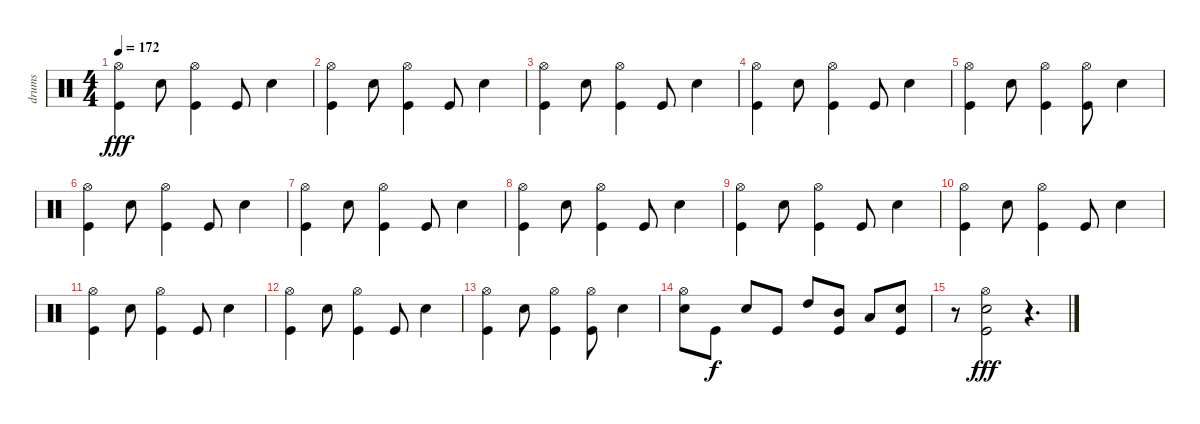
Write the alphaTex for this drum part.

\track ("drums" "drums") {instrument percussion}
\staff {score}
\articulation defaults
\ts (4 4)
\tempo 172
\clef neutral
\ks c
("Hi-Hat (open)" "Kick (hit)").4{dy fff} "Electric Snare (hit)".8 ("Hi-Hat (open)" "Kick (hit)").4 "Kick (hit)".8 "Electric Snare (hit)".4 |
("Hi-Hat (open)" "Kick (hit)").4 "Electric Snare (hit)".8 ("Hi-Hat (open)" "Kick (hit)").4 "Kick (hit)".8 "Electric Snare (hit)".4 |
("Hi-Hat (open)" "Kick (hit)").4 "Electric Snare (hit)".8 ("Hi-Hat (open)" "Kick (hit)").4 "Kick (hit)".8 "Electric Snare (hit)".4 |
("Hi-Hat (open)" "Kick (hit)").4 "Electric Snare (hit)".8 ("Hi-Hat (open)" "Kick (hit)").4 "Kick (hit)".8 "Electric Snare (hit)".4 |
("Hi-Hat (open)" "Kick (hit)").4 "Electric Snare (hit)".8 ("Hi-Hat (open)" "Kick (hit)").4 ("Hi-Hat (open)" "Kick (hit)").8 "Electric Snare (hit)".4 |
("Hi-Hat (open)" "Kick (hit)").4 "Electric Snare (hit)".8 ("Hi-Hat (open)" "Kick (hit)").4 "Kick (hit)".8 "Electric Snare (hit)".4 |
("Hi-Hat (open)" "Kick (hit)").4 "Electric Snare (hit)".8 ("Hi-Hat (open)" "Kick (hit)").4 "Kick (hit)".8 "Electric Snare (hit)".4 |
("Hi-Hat (open)" "Kick (hit)").4 "Electric Snare (hit)".8 ("Hi-Hat (open)" "Kick (hit)").4 "Kick (hit)".8 "Electric Snare (hit)".4 |
("Hi-Hat (open)" "Kick (hit)").4 "Electric Snare (hit)".8 ("Hi-Hat (open)" "Kick (hit)").4 "Kick (hit)".8 "Electric Snare (hit)".4 |
("Hi-Hat (open)" "Kick (hit)").4 "Electric Snare (hit)".8 ("Hi-Hat (open)" "Kick (hit)").4 "Kick (hit)".8 "Electric Snare (hit)".4 |
("Hi-Hat (open)" "Kick (hit)").4 "Electric Snare (hit)".8 ("Hi-Hat (open)" "Kick (hit)").4 "Kick (hit)".8 "Electric Snare (hit)".4 |
("Hi-Hat (open)" "Kick (hit)").4 "Electric Snare (hit)".8 ("Hi-Hat (open)" "Kick (hit)").4 "Kick (hit)".8 "Electric Snare (hit)".4 |
("Hi-Hat (open)" "Kick (hit)").4 "Electric Snare (hit)".8 ("Hi-Hat (open)" "Kick (hit)").4 ("Hi-Hat (open)" "Kick (hit)").8 "Electric Snare (hit)".4 |
("Hi-Hat (open)" "Electric Snare (hit)").8 "Kick (hit)".8{dy f} "Electric Snare (hit)".8 "Kick (hit)".8 "High Tom (hit)".8 ("Mid Tom (hit)" "Kick (hit)").8 "Low Tom (hit)".8 ("Electric Snare (hit)" "Kick (hit)").8 |
r.8 ("Hi-Hat (open)" "Electric Snare (hit)" "Kick (hit)").2{dy fff} r.4{d}
